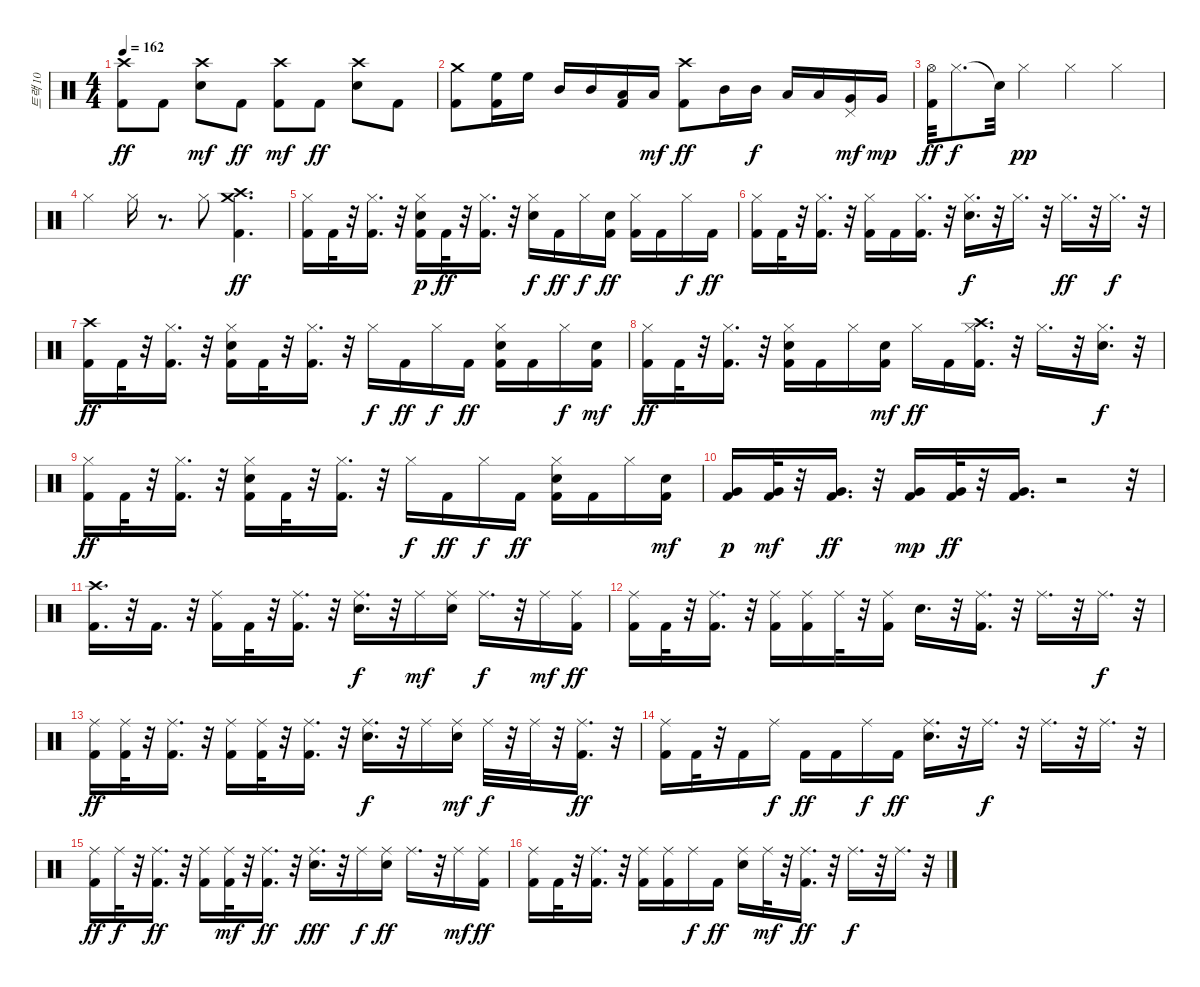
\track ("트랙 10" "트랙 10") {instrument percussion}
\staff {score}
\articulation defaults
\ts (4 4)
\tempo 162
\clef neutral
\ks c
("Kick (hit) 2" "Crash high (hit)").8{dy ff} "Kick (hit) 2".8 ("Electric Snare (hit)" "Crash high (hit)").8{dy mf} "Kick (hit) 2".8{dy ff} ("Kick (hit) 2" "Crash high (hit)").8{dy mf} "Kick (hit) 2".8{dy ff} ("Electric Snare (hit)" "Crash high (hit)").8 "Kick (hit) 2".8 |
("Kick (hit) 2" "Crash medium (hit)").8 ("Kick (hit) 2" "High Floor Tom (hit)").16 "High Floor Tom (hit)".16 "Mid Tom (hit)".16 "Mid Tom (hit)".16 ("Kick (hit) 2" "Low Tom (hit)").16 "Low Tom (hit)".16{dy mf} ("Kick (hit) 2" "Crash high (hit)").8{dy ff} "Mid Tom (hit)".16 "Mid Tom (hit)".16{dy f} "Low Tom (hit)".16 "Low Tom (hit)".16 ("Pedal Hi-Hat (hit)" "Very Low Tom (hit)").16{dy mf} "Very Low Tom (hit)".16{dy mp} |
("Hi-Hat (open)" "Kick (hit) 2").32{dy ff} "Hi-Hat (closed)".8{d dy f} "Snare (hit)"{t}.32 "Hi-Hat (closed)".4{dy pp} "Hi-Hat (closed)".4 "Hi-Hat (closed)".4 |
"Hi-Hat (closed)".4 "Hi-Hat (closed)".16 r.8{d} "Hi-Hat (closed)".8 ("Kick (hit) 2" "Crash high (hit)" "Crash medium (hit)").4{d dy ff} |
("Hi-Hat (closed)" "Kick (hit) 2").16 "Kick (hit) 2".32 r.32 ("Hi-Hat (closed)" "Kick (hit) 2").16{d} r.32 ("Hi-Hat (closed)" "Kick (hit) 2" "Electric Snare (hit)").16{dy p} "Kick (hit) 2".32{dy ff} r.32 ("Hi-Hat (closed)" "Kick (hit) 2").16{d} r.32 ("Hi-Hat (closed)" "Electric Snare (hit)").16{dy f} "Kick (hit) 2".16{dy ff} "Hi-Hat (closed)".16{dy f} ("Kick (hit) 2" "Electric Snare (hit)").16{dy ff} ("Hi-Hat (closed)" "Kick (hit) 2").16 "Kick (hit) 2".16 "Hi-Hat (closed)".16{dy f} "Kick (hit) 2".16{dy ff} |
("Hi-Hat (closed)" "Kick (hit) 2").16 "Kick (hit) 2".32 r.32 ("Hi-Hat (closed)" "Kick (hit) 2").16{d} r.32 ("Hi-Hat (closed)" "Kick (hit) 2").16 "Kick (hit) 2".16 ("Hi-Hat (closed)" "Kick (hit) 2").16{d} r.32 ("Hi-Hat (closed)" "Electric Snare (hit)").16{d dy f} r.32 "Hi-Hat (closed)".16{d} r.32 "Hi-Hat (closed)".16{d dy ff} r.32 "Hi-Hat (closed)".16{d dy f} r.32 |
("Kick (hit) 2" "Crash high (hit)").16{dy ff} "Kick (hit) 2".32 r.32 ("Hi-Hat (closed)" "Kick (hit) 2").16{d} r.32 ("Hi-Hat (closed)" "Kick (hit) 2" "Electric Snare (hit)").16 "Kick (hit) 2".32 r.32 ("Hi-Hat (closed)" "Kick (hit) 2").16{d} r.32 "Hi-Hat (closed)".16{dy f} "Kick (hit) 2".16{dy ff} "Hi-Hat (closed)".16{dy f} "Kick (hit) 2".16{dy ff} ("Hi-Hat (closed)" "Kick (hit) 2" "Electric Snare (hit)").16 "Kick (hit) 2".16 "Hi-Hat (closed)".16{dy f} ("Kick (hit) 2" "Electric Snare (hit)").16{dy mf} |
("Hi-Hat (closed)" "Kick (hit) 2").16{dy ff} "Kick (hit) 2".32 r.32 ("Hi-Hat (closed)" "Kick (hit) 2").16{d} r.32 ("Hi-Hat (closed)" "Kick (hit) 2" "Electric Snare (hit)").16 "Kick (hit) 2".16 "Hi-Hat (closed)".16 ("Kick (hit) 2" "Electric Snare (hit)").16{dy mf} "Hi-Hat (closed)".16{dy ff} "Kick (hit) 2".16 ("Hi-Hat (closed)" "Kick (hit) 2" "Crash high (hit)").16{d} r.32 "Hi-Hat (closed)".16{d} r.32 ("Hi-Hat (closed)" "Electric Snare (hit)").16{d dy f} r.32 |
("Hi-Hat (closed)" "Kick (hit) 2").16{dy ff} "Kick (hit) 2".32 r.32 ("Hi-Hat (closed)" "Kick (hit) 2").16{d} r.32 ("Hi-Hat (closed)" "Kick (hit) 2" "Electric Snare (hit)").16 "Kick (hit) 2".32 r.32 ("Hi-Hat (closed)" "Kick (hit) 2").16{d} r.32 "Hi-Hat (closed)".16{dy f} "Kick (hit) 2".16{dy ff} "Hi-Hat (closed)".16{dy f} "Kick (hit) 2".16{dy ff} ("Hi-Hat (closed)" "Kick (hit) 2" "Electric Snare (hit)").16 "Kick (hit) 2".16 "Hi-Hat (closed)".16 ("Kick (hit) 2" "Electric Snare (hit)").16{dy mf} |
("Kick (hit) 2" "Very Low Tom (hit)").16{dy p} ("Kick (hit) 2" "Very Low Tom (hit)").32{dy mf} r.32 ("Kick (hit) 2" "Very Low Tom (hit)").16{d dy ff} r.32 ("Kick (hit) 2" "Very Low Tom (hit)").16{dy mp} ("Kick (hit) 2" "Very Low Tom (hit)").32{dy ff} r.32 ("Kick (hit) 2" "Very Low Tom (hit)").16{d} r.2 r.32 |
("Kick (hit) 2" "Crash high (hit)").16{d} r.32 "Kick (hit) 2".16{d} r.32 ("Kick (hit) 2" "Ride (middle)").16 "Kick (hit) 2".32 r.32 ("Kick (hit) 2" "Ride (middle)").16{d} r.32 ("Electric Snare (hit)" "Ride (middle)").16{d dy f} r.32 "Ride (middle)".16{dy mf} ("Electric Snare (hit)" "Ride (middle)").16 "Ride (middle)".16{d dy f} r.32 "Ride (middle)".16{dy mf} ("Kick (hit) 2" "Ride (middle)").16{dy ff} |
("Kick (hit) 2" "Ride (middle)").16 "Kick (hit) 2".32 r.32 ("Kick (hit) 2" "Ride (middle)").16{d} r.32 ("Kick (hit) 2" "Ride (middle)").16 ("Kick (hit) 2" "Ride (middle)").16 "Ride (middle)".32 r.32 ("Kick (hit) 2" "Ride (middle)").16 "Electric Snare (hit)".16{d} r.32 ("Kick (hit) 2" "Ride (middle)").16{d} r.32 "Ride (middle)".16{d} r.32 "Ride (middle)".16{d dy f} r.32 |
("Kick (hit) 2" "Ride (middle)").16{dy ff} ("Kick (hit) 2" "Ride (middle)").32 r.32 ("Kick (hit) 2" "Ride (middle)").16{d} r.32 ("Kick (hit) 2" "Ride (middle)").16 ("Kick (hit) 2" "Ride (middle)").32 r.32 ("Kick (hit) 2" "Ride (middle)").16{d} r.32 ("Electric Snare (hit)" "Ride (middle)").16{d dy f} r.32 "Ride (middle)".16 ("Electric Snare (hit)" "Ride (middle)").16{dy mf} "Ride (middle)".32{dy f} r.32 "Ride (middle)".32 r.32 ("Kick (hit) 2" "Ride (middle)").16{d dy ff} r.32 |
("Kick (hit) 2" "Ride (middle)").16 "Kick (hit) 2".32 r.32 "Kick (hit) 2".16 "Ride (middle)".16{dy f} "Kick (hit) 2".16{dy ff} "Kick (hit) 2".16 "Ride (middle)".16{dy f} "Kick (hit) 2".16{dy ff} ("Electric Snare (hit)" "Ride (middle)").16{d} r.32 "Ride (middle)".16{d dy f} r.32 "Ride (middle)".16{d} r.32 "Ride (middle)".16{d} r.32 |
("Kick (hit) 2" "Ride (middle)").16{dy ff} "Ride (middle)".32{dy f} r.32 ("Kick (hit) 2" "Ride (middle)").16{d dy ff} r.32 ("Kick (hit) 2" "Ride (middle)").16 ("Kick (hit) 2" "Ride (middle)").32{dy mf} r.32 ("Kick (hit) 2" "Ride (middle)").16{d dy ff} r.32 ("Electric Snare (hit)" "Ride (middle)").16{d dy fff} r.32 "Ride (middle)".16{dy f} ("Electric Snare (hit)" "Ride (middle)").16{dy ff} "Ride (middle)".16{d} r.32 "Ride (middle)".16{dy mf} ("Kick (hit) 2" "Ride (middle)").16{dy ff} |
("Kick (hit) 2" "Ride (middle)").16 "Kick (hit) 2".32 r.32 ("Kick (hit) 2" "Ride (middle)").16{d} r.32 ("Kick (hit) 2" "Ride (middle)").16 ("Kick (hit) 2" "Ride (middle)").16 "Ride (middle)".16{dy f} "Kick (hit) 2".16{dy ff} ("Electric Snare (hit)" "Ride (middle)").16 "Ride (middle)".32{dy mf} r.32 ("Kick (hit) 2" "Ride (middle)").16{d dy ff} r.32 "Ride (middle)".16{d dy f} r.32 "Ride (middle)".16{d} r.32
